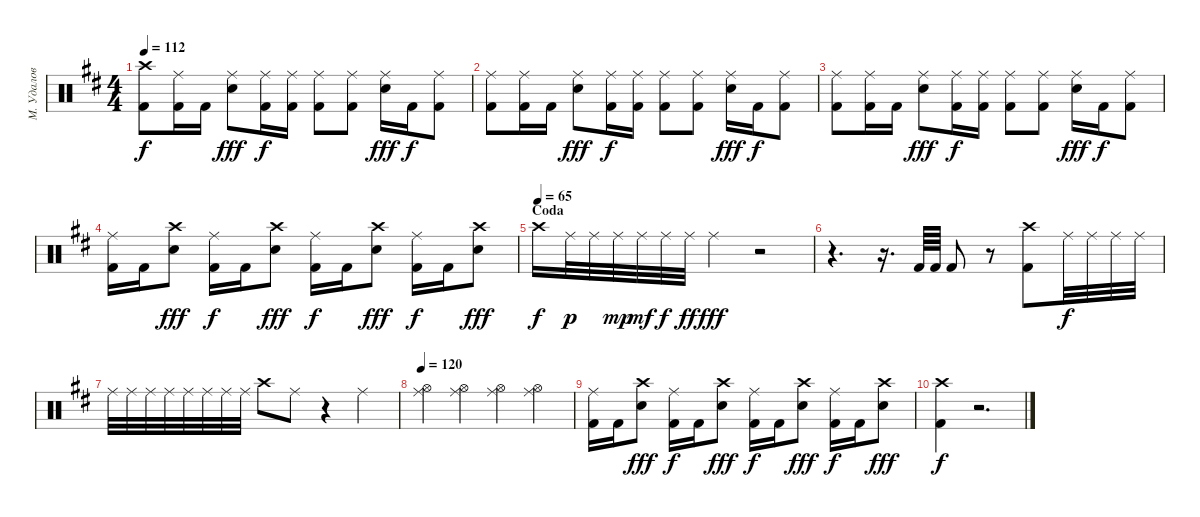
\track ("М. Удалов" "М. Удалов") {instrument percussion}
\staff {score}
\articulation defaults
\ts (4 4)
\tempo 112
\clef neutral
\ks d
("Crash high (hit)" "Kick (hit) 2").8{dy f} ("Ride (middle)" "Kick (hit) 2").16 "Kick (hit) 2".16 ("Ride (middle)" "Electric Snare (hit)").8{dy fff} ("Ride (middle)" "Kick (hit) 2").16{dy f} ("Ride (middle)" "Kick (hit) 2").16 ("Ride (middle)" "Kick (hit) 2").8 ("Ride (middle)" "Kick (hit) 2").8 ("Ride (middle)" "Electric Snare (hit)").16{dy fff} "Kick (hit) 2".16{dy f} ("Ride (middle)" "Kick (hit) 2").8 |
("Ride (middle)" "Kick (hit) 2").8 ("Ride (middle)" "Kick (hit) 2").16 "Kick (hit) 2".16 ("Ride (middle)" "Electric Snare (hit)").8{dy fff} ("Ride (middle)" "Kick (hit) 2").16{dy f} ("Ride (middle)" "Kick (hit) 2").16 ("Ride (middle)" "Kick (hit) 2").8 ("Ride (middle)" "Kick (hit) 2").8 ("Ride (middle)" "Electric Snare (hit)").16{dy fff} "Kick (hit) 2".16{dy f} ("Ride (middle)" "Kick (hit) 2").8 |
("Ride (middle)" "Kick (hit) 2").8 ("Ride (middle)" "Kick (hit) 2").16 "Kick (hit) 2".16 ("Ride (middle)" "Electric Snare (hit)").8{dy fff} ("Ride (middle)" "Kick (hit) 2").16{dy f} ("Ride (middle)" "Kick (hit) 2").16 ("Ride (middle)" "Kick (hit) 2").8 ("Ride (middle)" "Kick (hit) 2").8 ("Ride (middle)" "Electric Snare (hit)").16{dy fff} "Kick (hit) 2".16{dy f} ("Ride (middle)" "Kick (hit) 2").8 |
("Ride (middle)" "Kick (hit) 2").16 "Kick (hit) 2".16 ("Crash high (hit)" "Electric Snare (hit)").8{dy fff} ("Ride (middle)" "Kick (hit) 2").16{dy f} "Kick (hit) 2".16 ("Crash high (hit)" "Electric Snare (hit)").8{dy fff} ("Ride (middle)" "Kick (hit) 2").16{dy f} "Kick (hit) 2".16 ("Crash high (hit)" "Electric Snare (hit)").8{dy fff} ("Ride (middle)" "Kick (hit) 2").16{dy f} "Kick (hit) 2".16 ("Crash high (hit)" "Electric Snare (hit)").8{dy fff} |
\section ("" "Coda")
\tempo (65)
"Crash high (hit)".16{dy f} "Ride (middle)".32{dy p} "Ride (middle)".32 "Ride (middle)".32{dy mp} "Ride (middle)".32{dy mf} "Ride (middle)".32{dy f} "Ride (middle)".32{dy ff} "Ride (middle)".4{dy fff} r.2 |
r.4{d} r.16{d} "Kick (hit) 2".64 "Kick (hit) 2".64 "Kick (hit) 2".8 r.8 ("Crash high (hit)" "Kick (hit) 2").8 "Ride (middle)".32{dy f} "Ride (middle)".32 "Ride (middle)".32 "Ride (middle)".32 |
"Ride (middle)".32 "Ride (middle)".32 "Ride (middle)".32 "Ride (middle)".32 "Ride (middle)".32 "Ride (middle)".32 "Ride (middle)".32 "Ride (middle)".32 "Crash high (hit)".8 "Ride (middle)".8 r.4 "Ride (middle)".4 |
\tempo 120
("Hi-Hat (open)" "Ride (middle)").4 ("Hi-Hat (open)" "Ride (middle)").4 ("Hi-Hat (open)" "Ride (middle)").4 ("Hi-Hat (open)" "Ride (middle)").4 |
("Ride (middle)" "Kick (hit) 2").16 "Kick (hit) 2".16 ("Crash high (hit)" "Electric Snare (hit)").8{dy fff} ("Ride (middle)" "Kick (hit) 2").16{dy f} "Kick (hit) 2".16 ("Crash high (hit)" "Electric Snare (hit)").8{dy fff} ("Ride (middle)" "Kick (hit) 2").16{dy f} "Kick (hit) 2".16 ("Crash high (hit)" "Electric Snare (hit)").8{dy fff} ("Ride (middle)" "Kick (hit) 2").16{dy f} "Kick (hit) 2".16 ("Crash high (hit)" "Electric Snare (hit)").8{dy fff} |
("Crash high (hit)" "Kick (hit) 2").4{dy f} r.2{d}
